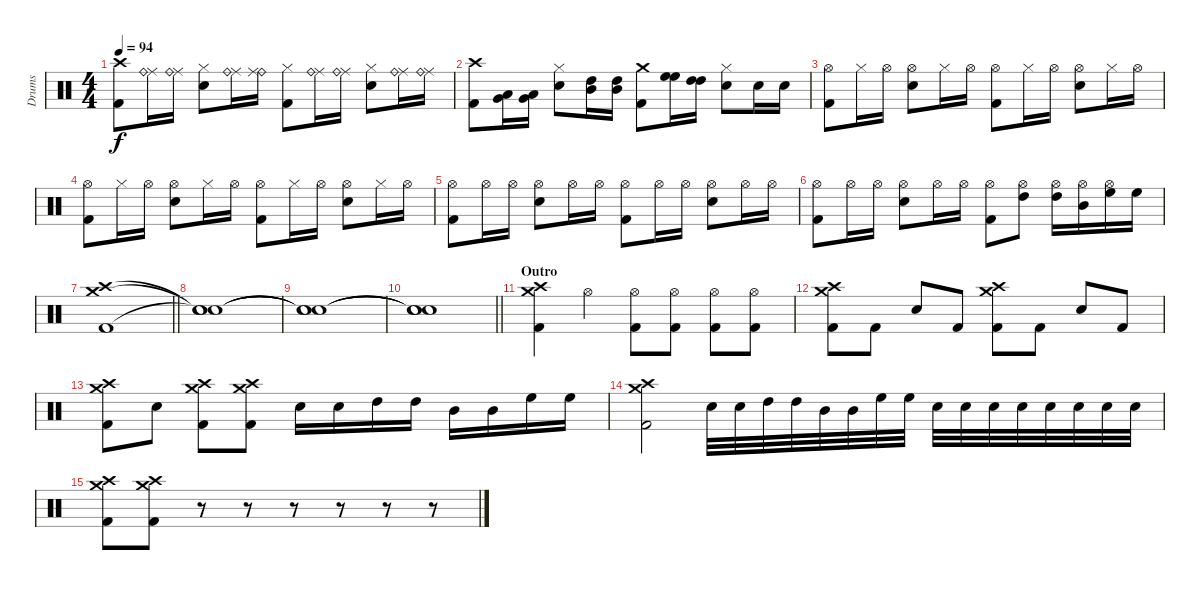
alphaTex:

\track ("Drums" "Drums") {instrument percussion}
\staff {score}
\articulation defaults
\ts (4 4)
\tempo 94
\clef neutral
\ks c
("Crash high (hit)" "Kick (hit) 2").8{dy f} ("Ride (middle)" "Ride (bell)").16 ("Ride (middle)" "Ride (bell)").16 ("Hi-Hat (closed)" "Electric Snare (hit)").8 ("Ride (middle)" "Ride (bell)").16 ("Ride (bell)" "Ride (middle)").16 ("Hi-Hat (closed)" "Kick (hit) 2").8 ("Ride (middle)" "Ride (bell)").16 ("Ride (middle)" "Ride (bell)").16 ("Hi-Hat (closed)" "Electric Snare (hit)").8 ("Ride (middle)" "Ride (bell)").16 ("Ride (middle)" "Ride (bell)").16 |
("Crash high (hit)" "Kick (hit) 2").8 ("Very Low Tom (hit)" "Low Tom (hit)").16 ("Very Low Tom (hit)" "Low Tom (hit)").16 ("Hi-Hat (closed)" "Electric Snare (hit)").8 ("High Tom (hit)" "Mid Tom (hit)").16 ("High Tom (hit)" "Mid Tom (hit)").16 ("Crash medium (hit)" "Kick (hit) 2").8 ("High Floor Tom (hit)" "High Floor Tom (hit)").16 ("High Tom (hit)" "High Tom (hit)").16 ("Hi-Hat (closed)" "Electric Snare (hit)").8 "Electric Snare (hit)".16 "Electric Snare (hit)".16 |
("Hi-Hat (open)" "Kick (hit) 2").8 "Hi-Hat (closed)".16 "Hi-Hat (open)".16 ("Hi-Hat (open)" "Electric Snare (hit)").8 "Hi-Hat (closed)".16 "Hi-Hat (open)".16 ("Hi-Hat (open)" "Kick (hit) 2").8 "Hi-Hat (closed)".16 "Hi-Hat (open)".16 ("Hi-Hat (open)" "Electric Snare (hit)").8 "Hi-Hat (closed)".16 "Hi-Hat (open)".16 |
("Hi-Hat (open)" "Kick (hit) 2").8 "Hi-Hat (closed)".16 "Hi-Hat (open)".16 ("Hi-Hat (open)" "Electric Snare (hit)").8 "Hi-Hat (closed)".16 "Hi-Hat (open)".16 ("Hi-Hat (open)" "Kick (hit) 2").8 "Hi-Hat (closed)".16 "Hi-Hat (open)".16 ("Hi-Hat (open)" "Electric Snare (hit)").8 "Hi-Hat (closed)".16 "Hi-Hat (open)".16 |
("Hi-Hat (open)" "Kick (hit) 2").8 "Hi-Hat (open)".16 "Hi-Hat (open)".16 ("Hi-Hat (open)" "Electric Snare (hit)").8 "Hi-Hat (open)".16 "Hi-Hat (open)".16 ("Hi-Hat (open)" "Kick (hit) 2").8 "Hi-Hat (open)".16 "Hi-Hat (open)".16 ("Hi-Hat (open)" "Electric Snare (hit)").8 "Hi-Hat (open)".16 "Hi-Hat (open)".16 |
("Hi-Hat (open)" "Kick (hit) 2").8 "Hi-Hat (open)".16 "Hi-Hat (open)".16 ("Hi-Hat (open)" "Electric Snare (hit)").8 "Hi-Hat (open)".16 "Hi-Hat (open)".16 ("Hi-Hat (open)" "Kick (hit) 2").8 ("Hi-Hat (open)" "High Tom (hit)").8 ("Hi-Hat (open)" "High Tom (hit)").16 ("Hi-Hat (open)" "Mid Tom (hit)").16 ("Hi-Hat (open)" "High Floor Tom (hit)").16 "High Floor Tom (hit)".16 |
\barLineRight lightlight
("Crash high (hit)" "Crash medium (hit)" "Kick (hit) 2").1 |
("Snare (hit)"{t} "Snare (hit)"{t} "Snare (hit)"{t}).1 |
("Snare (hit)"{t} "Snare (hit)"{t} "Snare (hit)"{t}).1 |
\barLineRight lightlight
("Snare (hit)"{t} "Snare (hit)"{t} "Snare (hit)"{t}).1 |
\section ("" "Outro")
("Crash high (hit)" "Crash medium (hit)" "Kick (hit) 2").4 "Hi-Hat (open)".4 ("Hi-Hat (open)" "Kick (hit) 2").8 ("Hi-Hat (open)" "Kick (hit) 2").8 ("Hi-Hat (open)" "Kick (hit) 2").8 ("Hi-Hat (open)" "Kick (hit) 2").8 |
("Crash high (hit)" "Crash medium (hit)" "Kick (hit) 2").8 "Kick (hit) 2".8 "Electric Snare (hit)".8 "Kick (hit) 2".8 ("Crash high (hit)" "Crash medium (hit)" "Kick (hit) 2").8 "Kick (hit) 2".8 "Electric Snare (hit)".8 "Kick (hit) 2".8 |
("Crash high (hit)" "Crash medium (hit)" "Kick (hit) 2").8 "Electric Snare (hit)".8 ("Crash high (hit)" "Crash medium (hit)" "Kick (hit) 2").8 ("Crash high (hit)" "Crash medium (hit)" "Kick (hit) 2").8 "Electric Snare (hit)".16 "Electric Snare (hit)".16 "High Tom (hit)".16 "High Tom (hit)".16 "Mid Tom (hit)".16 "Mid Tom (hit)".16 "High Floor Tom (hit)".16 "High Floor Tom (hit)".16 |
("Crash high (hit)" "Crash medium (hit)" "Kick (hit) 2").2 "Electric Snare (hit)".32 "Electric Snare (hit)".32 "High Tom (hit)".32 "High Tom (hit)".32 "Mid Tom (hit)".32 "Mid Tom (hit)".32 "High Floor Tom (hit)".32 "High Floor Tom (hit)".32 "Electric Snare (hit)".32 "Electric Snare (hit)".32 "Electric Snare (hit)".32 "Electric Snare (hit)".32 "Electric Snare (hit)".32 "Electric Snare (hit)".32 "Electric Snare (hit)".32 "Electric Snare (hit)".32 |
("Crash high (hit)" "Crash medium (hit)" "Kick (hit) 2").8 ("Crash high (hit)" "Crash medium (hit)" "Kick (hit) 2").8 r.8 r.8 r.8 r.8 r.8 r.8
